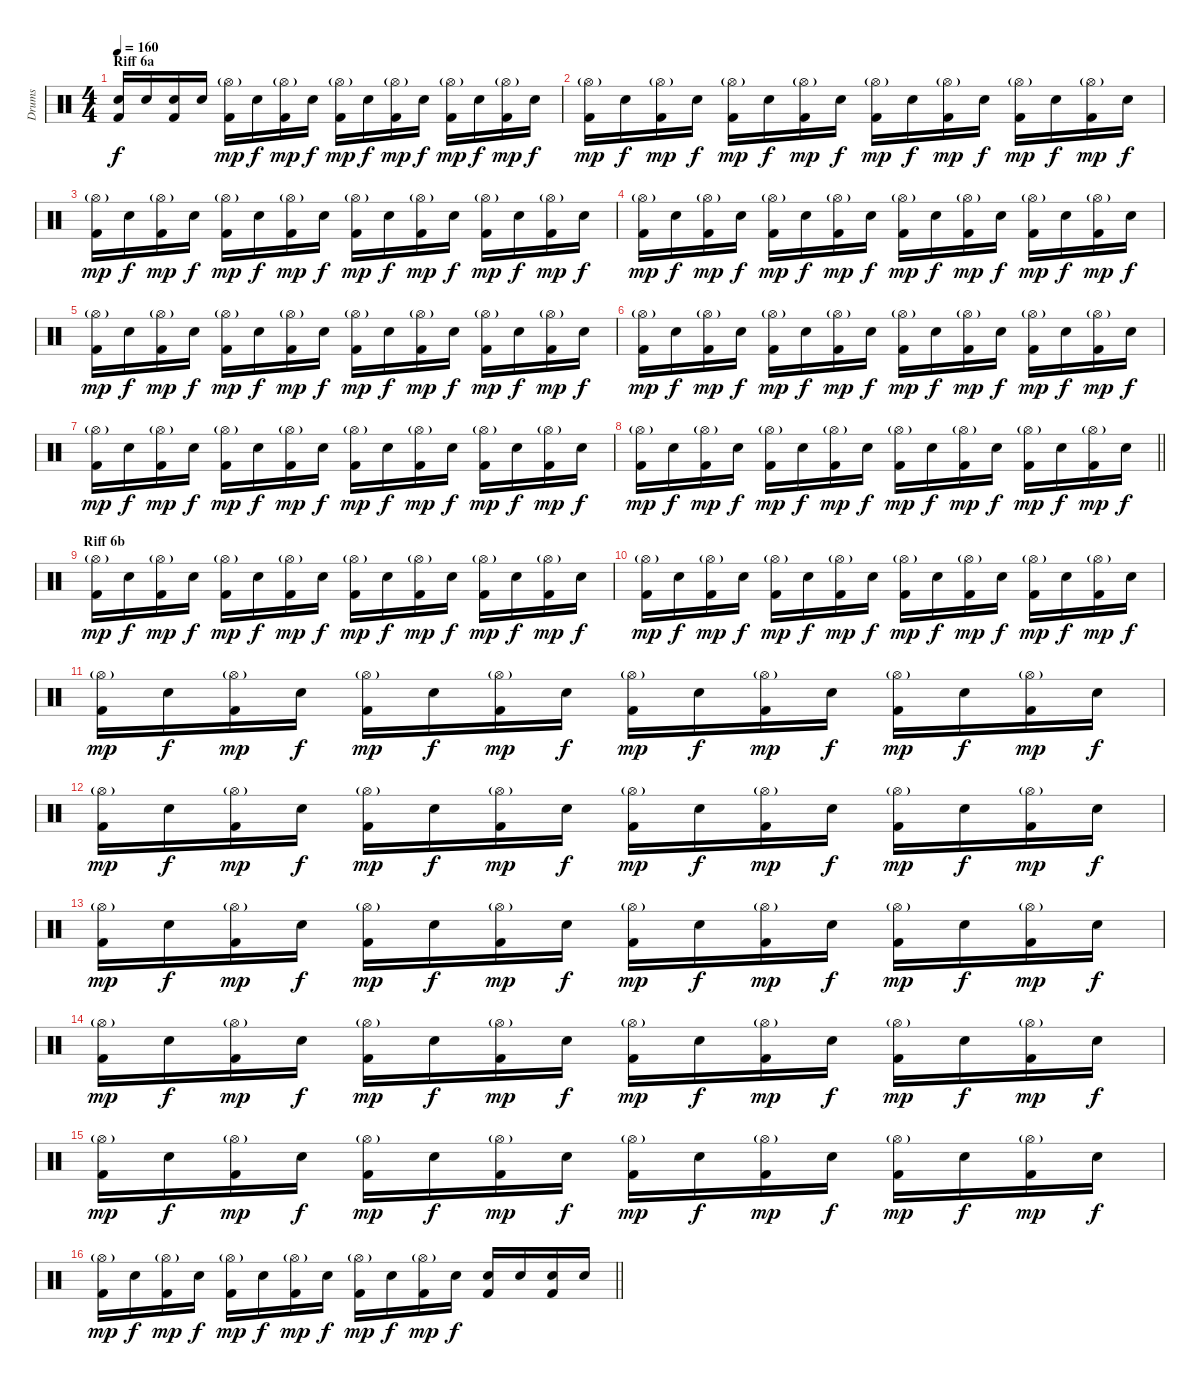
\track ("Drums" "Drums") {instrument percussion}
\staff {score}
\articulation defaults
\ts (4 4)
\section ("" "Riff 6a")
\tempo 160
\clef neutral
\ks c
("Electric Snare (hit)" "Kick (hit) 2").16{dy f} "Electric Snare (hit)".16 ("Electric Snare (hit)" "Kick (hit) 2").16 "Electric Snare (hit)".16 ("Hi-Hat (open)"{g} "Kick (hit) 2").16{dy mp} "Electric Snare (hit)".16{dy f} ("Hi-Hat (open)"{g} "Kick (hit) 2").16{dy mp} "Electric Snare (hit)".16{dy f} ("Hi-Hat (open)"{g} "Kick (hit) 2").16{dy mp} "Electric Snare (hit)".16{dy f} ("Hi-Hat (open)"{g} "Kick (hit) 2").16{dy mp} "Electric Snare (hit)".16{dy f} ("Hi-Hat (open)"{g} "Kick (hit) 2").16{dy mp} "Electric Snare (hit)".16{dy f} ("Hi-Hat (open)"{g} "Kick (hit) 2").16{dy mp} "Electric Snare (hit)".16{dy f} |
("Hi-Hat (open)"{g} "Kick (hit) 2").16{dy mp} "Electric Snare (hit)".16{dy f} ("Hi-Hat (open)"{g} "Kick (hit) 2").16{dy mp} "Electric Snare (hit)".16{dy f} ("Hi-Hat (open)"{g} "Kick (hit) 2").16{dy mp} "Electric Snare (hit)".16{dy f} ("Hi-Hat (open)"{g} "Kick (hit) 2").16{dy mp} "Electric Snare (hit)".16{dy f} ("Hi-Hat (open)"{g} "Kick (hit) 2").16{dy mp} "Electric Snare (hit)".16{dy f} ("Hi-Hat (open)"{g} "Kick (hit) 2").16{dy mp} "Electric Snare (hit)".16{dy f} ("Hi-Hat (open)"{g} "Kick (hit) 2").16{dy mp} "Electric Snare (hit)".16{dy f} ("Hi-Hat (open)"{g} "Kick (hit) 2").16{dy mp} "Electric Snare (hit)".16{dy f} |
("Hi-Hat (open)"{g} "Kick (hit) 2").16{dy mp} "Electric Snare (hit)".16{dy f} ("Hi-Hat (open)"{g} "Kick (hit) 2").16{dy mp} "Electric Snare (hit)".16{dy f} ("Hi-Hat (open)"{g} "Kick (hit) 2").16{dy mp} "Electric Snare (hit)".16{dy f} ("Hi-Hat (open)"{g} "Kick (hit) 2").16{dy mp} "Electric Snare (hit)".16{dy f} ("Hi-Hat (open)"{g} "Kick (hit) 2").16{dy mp} "Electric Snare (hit)".16{dy f} ("Hi-Hat (open)"{g} "Kick (hit) 2").16{dy mp} "Electric Snare (hit)".16{dy f} ("Hi-Hat (open)"{g} "Kick (hit) 2").16{dy mp} "Electric Snare (hit)".16{dy f} ("Hi-Hat (open)"{g} "Kick (hit) 2").16{dy mp} "Electric Snare (hit)".16{dy f} |
("Hi-Hat (open)"{g} "Kick (hit) 2").16{dy mp} "Electric Snare (hit)".16{dy f} ("Hi-Hat (open)"{g} "Kick (hit) 2").16{dy mp} "Electric Snare (hit)".16{dy f} ("Hi-Hat (open)"{g} "Kick (hit) 2").16{dy mp} "Electric Snare (hit)".16{dy f} ("Hi-Hat (open)"{g} "Kick (hit) 2").16{dy mp} "Electric Snare (hit)".16{dy f} ("Hi-Hat (open)"{g} "Kick (hit) 2").16{dy mp} "Electric Snare (hit)".16{dy f} ("Hi-Hat (open)"{g} "Kick (hit) 2").16{dy mp} "Electric Snare (hit)".16{dy f} ("Hi-Hat (open)"{g} "Kick (hit) 2").16{dy mp} "Electric Snare (hit)".16{dy f} ("Hi-Hat (open)"{g} "Kick (hit) 2").16{dy mp} "Electric Snare (hit)".16{dy f} |
("Hi-Hat (open)"{g} "Kick (hit) 2").16{dy mp} "Electric Snare (hit)".16{dy f} ("Hi-Hat (open)"{g} "Kick (hit) 2").16{dy mp} "Electric Snare (hit)".16{dy f} ("Hi-Hat (open)"{g} "Kick (hit) 2").16{dy mp} "Electric Snare (hit)".16{dy f} ("Hi-Hat (open)"{g} "Kick (hit) 2").16{dy mp} "Electric Snare (hit)".16{dy f} ("Hi-Hat (open)"{g} "Kick (hit) 2").16{dy mp} "Electric Snare (hit)".16{dy f} ("Hi-Hat (open)"{g} "Kick (hit) 2").16{dy mp} "Electric Snare (hit)".16{dy f} ("Hi-Hat (open)"{g} "Kick (hit) 2").16{dy mp} "Electric Snare (hit)".16{dy f} ("Hi-Hat (open)"{g} "Kick (hit) 2").16{dy mp} "Electric Snare (hit)".16{dy f} |
("Hi-Hat (open)"{g} "Kick (hit) 2").16{dy mp} "Electric Snare (hit)".16{dy f} ("Hi-Hat (open)"{g} "Kick (hit) 2").16{dy mp} "Electric Snare (hit)".16{dy f} ("Hi-Hat (open)"{g} "Kick (hit) 2").16{dy mp} "Electric Snare (hit)".16{dy f} ("Hi-Hat (open)"{g} "Kick (hit) 2").16{dy mp} "Electric Snare (hit)".16{dy f} ("Hi-Hat (open)"{g} "Kick (hit) 2").16{dy mp} "Electric Snare (hit)".16{dy f} ("Hi-Hat (open)"{g} "Kick (hit) 2").16{dy mp} "Electric Snare (hit)".16{dy f} ("Hi-Hat (open)"{g} "Kick (hit) 2").16{dy mp} "Electric Snare (hit)".16{dy f} ("Hi-Hat (open)"{g} "Kick (hit) 2").16{dy mp} "Electric Snare (hit)".16{dy f} |
("Hi-Hat (open)"{g} "Kick (hit) 2").16{dy mp} "Electric Snare (hit)".16{dy f} ("Hi-Hat (open)"{g} "Kick (hit) 2").16{dy mp} "Electric Snare (hit)".16{dy f} ("Hi-Hat (open)"{g} "Kick (hit) 2").16{dy mp} "Electric Snare (hit)".16{dy f} ("Hi-Hat (open)"{g} "Kick (hit) 2").16{dy mp} "Electric Snare (hit)".16{dy f} ("Hi-Hat (open)"{g} "Kick (hit) 2").16{dy mp} "Electric Snare (hit)".16{dy f} ("Hi-Hat (open)"{g} "Kick (hit) 2").16{dy mp} "Electric Snare (hit)".16{dy f} ("Hi-Hat (open)"{g} "Kick (hit) 2").16{dy mp} "Electric Snare (hit)".16{dy f} ("Hi-Hat (open)"{g} "Kick (hit) 2").16{dy mp} "Electric Snare (hit)".16{dy f} |
\barLineRight lightlight
("Hi-Hat (open)"{g} "Kick (hit) 2").16{dy mp} "Electric Snare (hit)".16{dy f} ("Hi-Hat (open)"{g} "Kick (hit) 2").16{dy mp} "Electric Snare (hit)".16{dy f} ("Hi-Hat (open)"{g} "Kick (hit) 2").16{dy mp} "Electric Snare (hit)".16{dy f} ("Hi-Hat (open)"{g} "Kick (hit) 2").16{dy mp} "Electric Snare (hit)".16{dy f} ("Hi-Hat (open)"{g} "Kick (hit) 2").16{dy mp} "Electric Snare (hit)".16{dy f} ("Hi-Hat (open)"{g} "Kick (hit) 2").16{dy mp} "Electric Snare (hit)".16{dy f} ("Hi-Hat (open)"{g} "Kick (hit) 2").16{dy mp} "Electric Snare (hit)".16{dy f} ("Hi-Hat (open)"{g} "Kick (hit) 2").16{dy mp} "Electric Snare (hit)".16{dy f} |
\section ("" "Riff 6b")
("Hi-Hat (open)"{g} "Kick (hit) 2").16{dy mp} "Electric Snare (hit)".16{dy f} ("Hi-Hat (open)"{g} "Kick (hit) 2").16{dy mp} "Electric Snare (hit)".16{dy f} ("Hi-Hat (open)"{g} "Kick (hit) 2").16{dy mp} "Electric Snare (hit)".16{dy f} ("Hi-Hat (open)"{g} "Kick (hit) 2").16{dy mp} "Electric Snare (hit)".16{dy f} ("Hi-Hat (open)"{g} "Kick (hit) 2").16{dy mp} "Electric Snare (hit)".16{dy f} ("Hi-Hat (open)"{g} "Kick (hit) 2").16{dy mp} "Electric Snare (hit)".16{dy f} ("Hi-Hat (open)"{g} "Kick (hit) 2").16{dy mp} "Electric Snare (hit)".16{dy f} ("Hi-Hat (open)"{g} "Kick (hit) 2").16{dy mp} "Electric Snare (hit)".16{dy f} |
("Hi-Hat (open)"{g} "Kick (hit) 2").16{dy mp} "Electric Snare (hit)".16{dy f} ("Hi-Hat (open)"{g} "Kick (hit) 2").16{dy mp} "Electric Snare (hit)".16{dy f} ("Hi-Hat (open)"{g} "Kick (hit) 2").16{dy mp} "Electric Snare (hit)".16{dy f} ("Hi-Hat (open)"{g} "Kick (hit) 2").16{dy mp} "Electric Snare (hit)".16{dy f} ("Hi-Hat (open)"{g} "Kick (hit) 2").16{dy mp} "Electric Snare (hit)".16{dy f} ("Hi-Hat (open)"{g} "Kick (hit) 2").16{dy mp} "Electric Snare (hit)".16{dy f} ("Hi-Hat (open)"{g} "Kick (hit) 2").16{dy mp} "Electric Snare (hit)".16{dy f} ("Hi-Hat (open)"{g} "Kick (hit) 2").16{dy mp} "Electric Snare (hit)".16{dy f} |
("Hi-Hat (open)"{g} "Kick (hit) 2").16{dy mp} "Electric Snare (hit)".16{dy f} ("Hi-Hat (open)"{g} "Kick (hit) 2").16{dy mp} "Electric Snare (hit)".16{dy f} ("Hi-Hat (open)"{g} "Kick (hit) 2").16{dy mp} "Electric Snare (hit)".16{dy f} ("Hi-Hat (open)"{g} "Kick (hit) 2").16{dy mp} "Electric Snare (hit)".16{dy f} ("Hi-Hat (open)"{g} "Kick (hit) 2").16{dy mp} "Electric Snare (hit)".16{dy f} ("Hi-Hat (open)"{g} "Kick (hit) 2").16{dy mp} "Electric Snare (hit)".16{dy f} ("Hi-Hat (open)"{g} "Kick (hit) 2").16{dy mp} "Electric Snare (hit)".16{dy f} ("Hi-Hat (open)"{g} "Kick (hit) 2").16{dy mp} "Electric Snare (hit)".16{dy f} |
("Hi-Hat (open)"{g} "Kick (hit) 2").16{dy mp} "Electric Snare (hit)".16{dy f} ("Hi-Hat (open)"{g} "Kick (hit) 2").16{dy mp} "Electric Snare (hit)".16{dy f} ("Hi-Hat (open)"{g} "Kick (hit) 2").16{dy mp} "Electric Snare (hit)".16{dy f} ("Hi-Hat (open)"{g} "Kick (hit) 2").16{dy mp} "Electric Snare (hit)".16{dy f} ("Hi-Hat (open)"{g} "Kick (hit) 2").16{dy mp} "Electric Snare (hit)".16{dy f} ("Hi-Hat (open)"{g} "Kick (hit) 2").16{dy mp} "Electric Snare (hit)".16{dy f} ("Hi-Hat (open)"{g} "Kick (hit) 2").16{dy mp} "Electric Snare (hit)".16{dy f} ("Hi-Hat (open)"{g} "Kick (hit) 2").16{dy mp} "Electric Snare (hit)".16{dy f} |
("Hi-Hat (open)"{g} "Kick (hit) 2").16{dy mp} "Electric Snare (hit)".16{dy f} ("Hi-Hat (open)"{g} "Kick (hit) 2").16{dy mp} "Electric Snare (hit)".16{dy f} ("Hi-Hat (open)"{g} "Kick (hit) 2").16{dy mp} "Electric Snare (hit)".16{dy f} ("Hi-Hat (open)"{g} "Kick (hit) 2").16{dy mp} "Electric Snare (hit)".16{dy f} ("Hi-Hat (open)"{g} "Kick (hit) 2").16{dy mp} "Electric Snare (hit)".16{dy f} ("Hi-Hat (open)"{g} "Kick (hit) 2").16{dy mp} "Electric Snare (hit)".16{dy f} ("Hi-Hat (open)"{g} "Kick (hit) 2").16{dy mp} "Electric Snare (hit)".16{dy f} ("Hi-Hat (open)"{g} "Kick (hit) 2").16{dy mp} "Electric Snare (hit)".16{dy f} |
("Hi-Hat (open)"{g} "Kick (hit) 2").16{dy mp} "Electric Snare (hit)".16{dy f} ("Hi-Hat (open)"{g} "Kick (hit) 2").16{dy mp} "Electric Snare (hit)".16{dy f} ("Hi-Hat (open)"{g} "Kick (hit) 2").16{dy mp} "Electric Snare (hit)".16{dy f} ("Hi-Hat (open)"{g} "Kick (hit) 2").16{dy mp} "Electric Snare (hit)".16{dy f} ("Hi-Hat (open)"{g} "Kick (hit) 2").16{dy mp} "Electric Snare (hit)".16{dy f} ("Hi-Hat (open)"{g} "Kick (hit) 2").16{dy mp} "Electric Snare (hit)".16{dy f} ("Hi-Hat (open)"{g} "Kick (hit) 2").16{dy mp} "Electric Snare (hit)".16{dy f} ("Hi-Hat (open)"{g} "Kick (hit) 2").16{dy mp} "Electric Snare (hit)".16{dy f} |
("Hi-Hat (open)"{g} "Kick (hit) 2").16{dy mp} "Electric Snare (hit)".16{dy f} ("Hi-Hat (open)"{g} "Kick (hit) 2").16{dy mp} "Electric Snare (hit)".16{dy f} ("Hi-Hat (open)"{g} "Kick (hit) 2").16{dy mp} "Electric Snare (hit)".16{dy f} ("Hi-Hat (open)"{g} "Kick (hit) 2").16{dy mp} "Electric Snare (hit)".16{dy f} ("Hi-Hat (open)"{g} "Kick (hit) 2").16{dy mp} "Electric Snare (hit)".16{dy f} ("Hi-Hat (open)"{g} "Kick (hit) 2").16{dy mp} "Electric Snare (hit)".16{dy f} ("Hi-Hat (open)"{g} "Kick (hit) 2").16{dy mp} "Electric Snare (hit)".16{dy f} ("Hi-Hat (open)"{g} "Kick (hit) 2").16{dy mp} "Electric Snare (hit)".16{dy f} |
\barLineRight lightlight
("Hi-Hat (open)"{g} "Kick (hit) 2").16{dy mp} "Electric Snare (hit)".16{dy f} ("Hi-Hat (open)"{g} "Kick (hit) 2").16{dy mp} "Electric Snare (hit)".16{dy f} ("Hi-Hat (open)"{g} "Kick (hit) 2").16{dy mp} "Electric Snare (hit)".16{dy f} ("Hi-Hat (open)"{g} "Kick (hit) 2").16{dy mp} "Electric Snare (hit)".16{dy f} ("Hi-Hat (open)"{g} "Kick (hit) 2").16{dy mp} "Electric Snare (hit)".16{dy f} ("Hi-Hat (open)"{g} "Kick (hit) 2").16{dy mp} "Electric Snare (hit)".16{dy f} ("Electric Snare (hit)" "Kick (hit) 2").16 "Electric Snare (hit)".16 ("Electric Snare (hit)" "Kick (hit) 2").16 "Electric Snare (hit)".16
